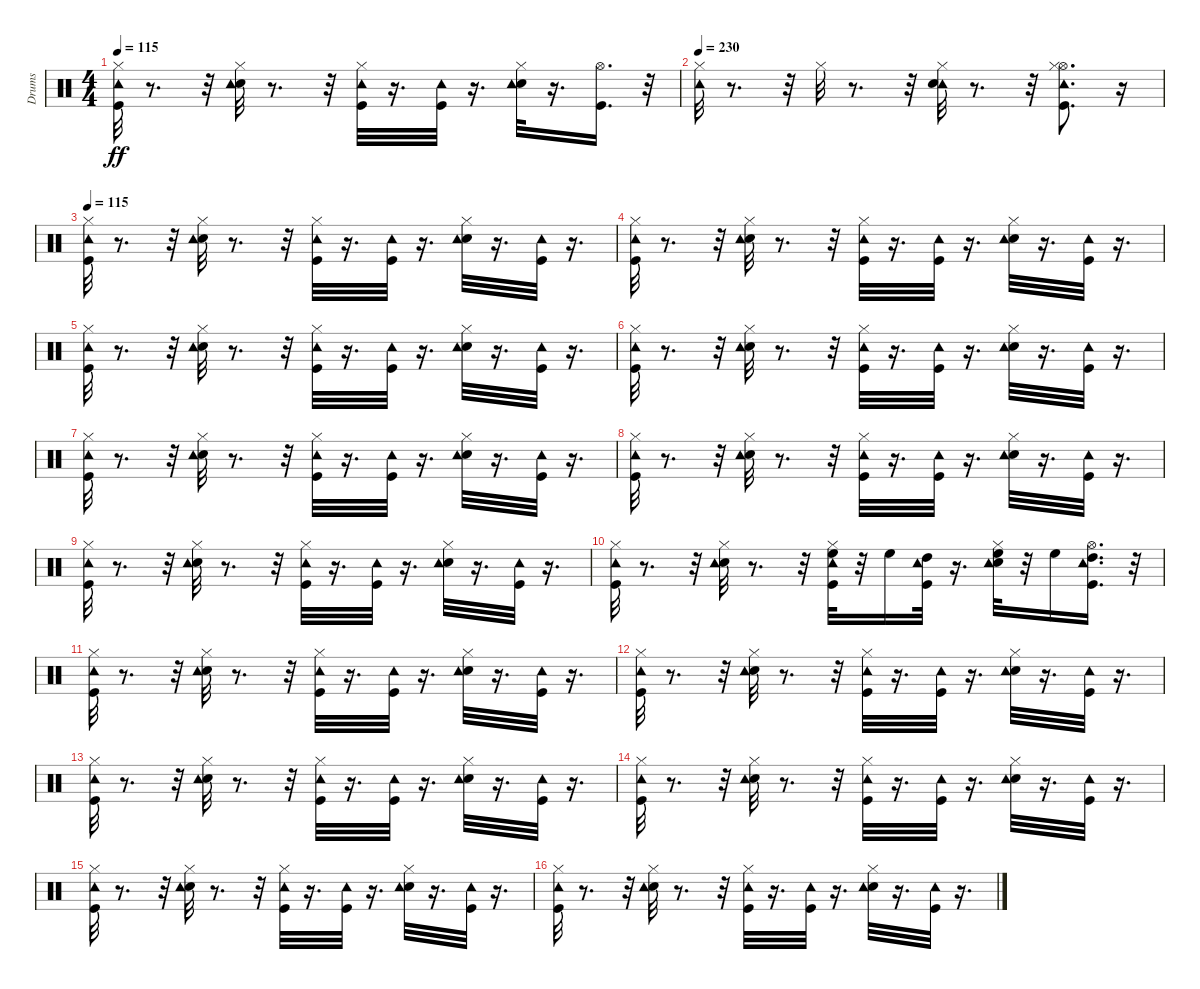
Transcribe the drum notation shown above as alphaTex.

\track ("Drums" "Drums") {instrument percussion}
\staff {score}
\articulation defaults
\ts (4 4)
\tempo 115
\clef neutral
\ks c
("Hi-Hat (closed)" "Kick (hit)" "Tambourine (hit)").32{dy ff} r.8{d} r.32 ("Hi-Hat (closed)" "Hand Clap (hit)" "Tambourine (hit)").32 r.8{d} r.32 ("Hi-Hat (closed)" "Kick (hit)" "Tambourine (hit)").32 r.16{d} ("Kick (hit)" "Tambourine (hit)").32 r.16{d} ("Hi-Hat (closed)" "Hand Clap (hit)" "Tambourine (hit)").32 r.16{d} ("Hi-Hat (open)" "Kick (hit)").16{d} r.32 |
\tempo 230
("Hi-Hat (closed)" "Tambourine (hit)").32 r.8{d} r.32 "Hi-Hat (closed)".32 r.8{d} r.32 ("Hi-Hat (closed)" "Tambourine (hit)" "Hand Clap (hit)").32 r.8{d} r.32 ("Hi-Hat (open)" "Kick (hit)" "Hi-Hat (closed)" "Tambourine (hit)").8{d} r.16 |
\tempo 115
("Hi-Hat (closed)" "Kick (hit)" "Tambourine (hit)").32 r.8{d} r.32 ("Hi-Hat (closed)" "Snare (hit) 2" "Tambourine (hit)").32 r.8{d} r.32 ("Hi-Hat (closed)" "Kick (hit)" "Tambourine (hit)").32 r.16{d} ("Kick (hit)" "Tambourine (hit)").32 r.16{d} ("Hi-Hat (closed)" "Snare (hit) 2" "Tambourine (hit)").32 r.16{d} ("Kick (hit)" "Tambourine (hit)").32 r.16{d} |
("Hi-Hat (closed)" "Kick (hit)" "Tambourine (hit)").32 r.8{d} r.32 ("Hi-Hat (closed)" "Snare (hit) 2" "Tambourine (hit)").32 r.8{d} r.32 ("Hi-Hat (closed)" "Kick (hit)" "Tambourine (hit)").32 r.16{d} ("Kick (hit)" "Tambourine (hit)").32 r.16{d} ("Hi-Hat (closed)" "Snare (hit) 2" "Tambourine (hit)").32 r.16{d} ("Kick (hit)" "Tambourine (hit)").32 r.16{d} |
("Hi-Hat (closed)" "Kick (hit)" "Tambourine (hit)").32 r.8{d} r.32 ("Hi-Hat (closed)" "Snare (hit) 2" "Tambourine (hit)").32 r.8{d} r.32 ("Hi-Hat (closed)" "Kick (hit)" "Tambourine (hit)").32 r.16{d} ("Kick (hit)" "Tambourine (hit)").32 r.16{d} ("Hi-Hat (closed)" "Snare (hit) 2" "Tambourine (hit)").32 r.16{d} ("Kick (hit)" "Tambourine (hit)").32 r.16{d} |
("Hi-Hat (closed)" "Kick (hit)" "Tambourine (hit)").32 r.8{d} r.32 ("Hi-Hat (closed)" "Snare (hit) 2" "Tambourine (hit)").32 r.8{d} r.32 ("Hi-Hat (closed)" "Kick (hit)" "Tambourine (hit)").32 r.16{d} ("Kick (hit)" "Tambourine (hit)").32 r.16{d} ("Hi-Hat (closed)" "Snare (hit) 2" "Tambourine (hit)").32 r.16{d} ("Kick (hit)" "Tambourine (hit)").32 r.16{d} |
("Hi-Hat (closed)" "Kick (hit)" "Tambourine (hit)").32 r.8{d} r.32 ("Hi-Hat (closed)" "Snare (hit) 2" "Tambourine (hit)").32 r.8{d} r.32 ("Hi-Hat (closed)" "Kick (hit)" "Tambourine (hit)").32 r.16{d} ("Kick (hit)" "Tambourine (hit)").32 r.16{d} ("Hi-Hat (closed)" "Snare (hit) 2" "Tambourine (hit)").32 r.16{d} ("Kick (hit)" "Tambourine (hit)").32 r.16{d} |
("Hi-Hat (closed)" "Kick (hit)" "Tambourine (hit)").32 r.8{d} r.32 ("Hi-Hat (closed)" "Snare (hit) 2" "Tambourine (hit)").32 r.8{d} r.32 ("Hi-Hat (closed)" "Kick (hit)" "Tambourine (hit)").32 r.16{d} ("Kick (hit)" "Tambourine (hit)").32 r.16{d} ("Hi-Hat (closed)" "Snare (hit) 2" "Tambourine (hit)").32 r.16{d} ("Kick (hit)" "Tambourine (hit)").32 r.16{d} |
("Hi-Hat (closed)" "Kick (hit)" "Tambourine (hit)").32 r.8{d} r.32 ("Hi-Hat (closed)" "Snare (hit) 2" "Tambourine (hit)").32 r.8{d} r.32 ("Hi-Hat (closed)" "Kick (hit)" "Tambourine (hit)").32 r.16{d} ("Kick (hit)" "Tambourine (hit)").32 r.16{d} ("Hi-Hat (closed)" "Snare (hit) 2" "Tambourine (hit)").32 r.16{d} ("Kick (hit)" "Tambourine (hit)").32 r.16{d} |
("Hi-Hat (closed)" "Kick (hit)" "Tambourine (hit)").32 r.8{d} r.32 ("Hi-Hat (closed)" "Snare (hit) 2" "Tambourine (hit)").32 r.8{d} r.32 ("High Floor Tom (hit)" "Hi-Hat (closed)" "Kick (hit)" "Tambourine (hit)").32 r.32 "High Floor Tom (hit)".16 ("High Tom (hit)" "Kick (hit)" "Tambourine (hit)").32 r.16{d} ("Hi-Hat (closed)" "Snare (hit) 2" "Tambourine (hit)" "High Floor Tom (hit)").32 r.32 "High Floor Tom (hit)".16 ("Kick (hit)" "Hi-Hat (open)" "Tambourine (hit)" "High Tom (hit)").16{d} r.32 |
("Hi-Hat (closed)" "Kick (hit)" "Tambourine (hit)").32 r.8{d} r.32 ("Hi-Hat (closed)" "Snare (hit) 2" "Tambourine (hit)").32 r.8{d} r.32 ("Hi-Hat (closed)" "Kick (hit)" "Tambourine (hit)").32 r.16{d} ("Kick (hit)" "Tambourine (hit)").32 r.16{d} ("Hi-Hat (closed)" "Snare (hit) 2" "Tambourine (hit)").32 r.16{d} ("Kick (hit)" "Tambourine (hit)").32 r.16{d} |
("Hi-Hat (closed)" "Kick (hit)" "Tambourine (hit)").32 r.8{d} r.32 ("Hi-Hat (closed)" "Snare (hit) 2" "Tambourine (hit)").32 r.8{d} r.32 ("Hi-Hat (closed)" "Kick (hit)" "Tambourine (hit)").32 r.16{d} ("Kick (hit)" "Tambourine (hit)").32 r.16{d} ("Hi-Hat (closed)" "Snare (hit) 2" "Tambourine (hit)").32 r.16{d} ("Kick (hit)" "Tambourine (hit)").32 r.16{d} |
("Hi-Hat (closed)" "Kick (hit)" "Tambourine (hit)").32 r.8{d} r.32 ("Hi-Hat (closed)" "Snare (hit) 2" "Tambourine (hit)").32 r.8{d} r.32 ("Hi-Hat (closed)" "Kick (hit)" "Tambourine (hit)").32 r.16{d} ("Kick (hit)" "Tambourine (hit)").32 r.16{d} ("Hi-Hat (closed)" "Snare (hit) 2" "Tambourine (hit)").32 r.16{d} ("Kick (hit)" "Tambourine (hit)").32 r.16{d} |
("Hi-Hat (closed)" "Kick (hit)" "Tambourine (hit)").32 r.8{d} r.32 ("Hi-Hat (closed)" "Snare (hit) 2" "Tambourine (hit)").32 r.8{d} r.32 ("Hi-Hat (closed)" "Kick (hit)" "Tambourine (hit)").32 r.16{d} ("Kick (hit)" "Tambourine (hit)").32 r.16{d} ("Hi-Hat (closed)" "Snare (hit) 2" "Tambourine (hit)").32 r.16{d} ("Kick (hit)" "Tambourine (hit)").32 r.16{d} |
("Hi-Hat (closed)" "Kick (hit)" "Tambourine (hit)").32 r.8{d} r.32 ("Hi-Hat (closed)" "Snare (hit) 2" "Tambourine (hit)").32 r.8{d} r.32 ("Hi-Hat (closed)" "Kick (hit)" "Tambourine (hit)").32 r.16{d} ("Kick (hit)" "Tambourine (hit)").32 r.16{d} ("Hi-Hat (closed)" "Snare (hit) 2" "Tambourine (hit)").32 r.16{d} ("Kick (hit)" "Tambourine (hit)").32 r.16{d} |
("Hi-Hat (closed)" "Kick (hit)" "Tambourine (hit)").32 r.8{d} r.32 ("Hi-Hat (closed)" "Snare (hit) 2" "Tambourine (hit)").32 r.8{d} r.32 ("Hi-Hat (closed)" "Kick (hit)" "Tambourine (hit)").32 r.16{d} ("Kick (hit)" "Tambourine (hit)").32 r.16{d} ("Hi-Hat (closed)" "Snare (hit) 2" "Tambourine (hit)").32 r.16{d} ("Kick (hit)" "Tambourine (hit)").32 r.16{d}
